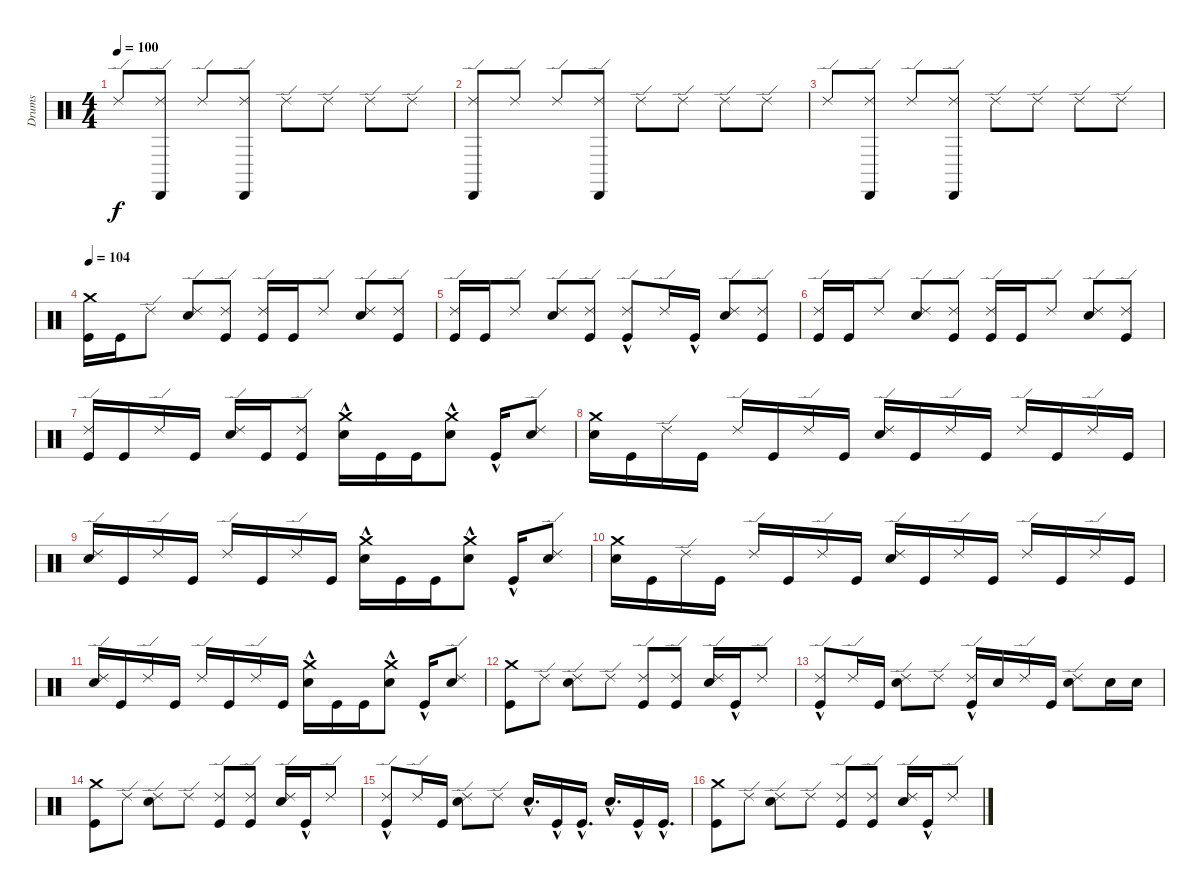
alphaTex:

\track ("Drums" "Drums") {instrument percussion}
\staff {score}
\articulation defaults
\ts (4 4)
\tempo 100
\clef neutral
\ks c "Ride (edge) 2".8{dy f}
("Cabasa (hit)" "Ride (edge) 2").8 "Ride (edge) 2".8 ("Cabasa (hit)" "Ride (edge) 2").8 "Ride (edge) 2".8 "Ride (edge) 2".8 "Ride (edge) 2".8 "Ride (edge) 2".8 |
("Cabasa (hit)" "Ride (edge) 2").8 "Ride (edge) 2".8 "Ride (edge) 2".8 ("Cabasa (hit)" "Ride (edge) 2").8 "Ride (edge) 2".8 "Ride (edge) 2".8 "Ride (edge) 2".8 "Ride (edge) 2".8 |
"Ride (edge) 2".8 ("Cabasa (hit)" "Ride (edge) 2").8 "Ride (edge) 2".8 ("Cabasa (hit)" "Ride (edge) 2").8 "Ride (edge) 2".8 "Ride (edge) 2".8 "Ride (edge) 2".8 "Ride (edge) 2".8 |
\tempo 104
("Kick (hit)" "Crash medium (hit)").16 "Kick (hit)".16 "Ride (edge) 2".8 ("Electric Snare (hit)" "Ride (edge) 2").8 ("Kick (hit)" "Ride (edge) 2").8 ("Ride (edge) 2" "Kick (hit)").16 "Kick (hit)".16 "Ride (edge) 2".8 ("Electric Snare (hit)" "Ride (edge) 2").8 ("Kick (hit)" "Ride (edge) 2").8 |
("Kick (hit)" "Ride (edge) 2").16 "Kick (hit)".16 "Ride (edge) 2".8 ("Electric Snare (hit)" "Ride (edge) 2").8 ("Kick (hit)" "Ride (edge) 2").8 ("Kick (hit)"{hac} "Ride (edge) 2").8 "Ride (edge) 2".16 "Kick (hit)"{hac}.16 ("Electric Snare (hit)" "Ride (edge) 2").8 ("Kick (hit)" "Ride (edge) 2").8 |
("Kick (hit)" "Ride (edge) 2").16 "Kick (hit)".16 "Ride (edge) 2".8 ("Electric Snare (hit)" "Ride (edge) 2").8 ("Kick (hit)" "Ride (edge) 2").8 ("Kick (hit)" "Ride (edge) 2").16 "Kick (hit)".16 "Ride (edge) 2".8 ("Electric Snare (hit)" "Ride (edge) 2").8 ("Kick (hit)" "Ride (edge) 2").8 |
("Kick (hit)" "Ride (edge) 2").16 "Kick (hit)".16 "Ride (edge) 2".16 "Kick (hit)".16 ("Electric Snare (hit)" "Ride (edge) 2").16 "Kick (hit)".16 ("Kick (hit)" "Ride (edge) 2").8 ("Electric Snare (hit)"{hac} "Crash medium (hit)"{hac}).16 "Kick (hit)".16 "Kick (hit)".16 ("Electric Snare (hit)"{hac} "Crash medium (hit)"{hac}).8 "Kick (hit)"{hac}.16 ("Electric Snare (hit)" "Ride (edge) 2").8 |
("Electric Snare (hit)" "Crash medium (hit)").16 "Kick (hit)".16 "Ride (edge) 2".16 "Kick (hit)".16 "Ride (edge) 2".16 "Kick (hit)".16 "Ride (edge) 2".16 "Kick (hit)".16 ("Electric Snare (hit)" "Ride (edge) 2").16 "Kick (hit)".16 "Ride (edge) 2".16 "Kick (hit)".16 "Ride (edge) 2".16 "Kick (hit)".16 "Ride (edge) 2".16 "Kick (hit)".16 |
("Electric Snare (hit)" "Ride (edge) 2").16 "Kick (hit)".16 "Ride (edge) 2".16 "Kick (hit)".16 "Ride (edge) 2".16 "Kick (hit)".16 "Ride (edge) 2".16 "Kick (hit)".16 ("Electric Snare (hit)"{hac} "Crash medium (hit)"{hac}).16 "Kick (hit)".16 "Kick (hit)".16 ("Electric Snare (hit)"{hac} "Crash medium (hit)"{hac}).8 "Kick (hit)"{hac}.16 ("Electric Snare (hit)" "Ride (edge) 2").8 |
("Electric Snare (hit)" "Crash medium (hit)").16 "Kick (hit)".16 "Ride (edge) 2".16 "Kick (hit)".16 "Ride (edge) 2".16 "Kick (hit)".16 "Ride (edge) 2".16 "Kick (hit)".16 ("Electric Snare (hit)" "Ride (edge) 2").16 "Kick (hit)".16 "Ride (edge) 2".16 "Kick (hit)".16 "Ride (edge) 2".16 "Kick (hit)".16 "Ride (edge) 2".16 "Kick (hit)".16 |
("Electric Snare (hit)" "Ride (edge) 2").16 "Kick (hit)".16 "Ride (edge) 2".16 "Kick (hit)".16 "Ride (edge) 2".16 "Kick (hit)".16 "Ride (edge) 2".16 "Kick (hit)".16 ("Electric Snare (hit)"{hac} "Crash medium (hit)"{hac}).16 "Kick (hit)".16 "Kick (hit)".16 ("Electric Snare (hit)"{hac} "Crash medium (hit)"{hac}).8 "Kick (hit)"{hac}.16 ("Electric Snare (hit)" "Ride (edge) 2").8 |
("Kick (hit)" "Crash medium (hit)").8 "Ride (edge) 2".8 ("Electric Snare (hit)" "Ride (edge) 2").8 "Ride (edge) 2".8 ("Kick (hit)" "Ride (edge) 2").8 ("Kick (hit)" "Ride (edge) 2").8 ("Electric Snare (hit)" "Ride (edge) 2").16 "Kick (hit)"{hac}.16 "Ride (edge) 2".8 |
("Kick (hit)"{hac} "Ride (edge) 2").8 "Ride (edge) 2".16 "Kick (hit)".16 ("Electric Snare (hit)" "Ride (edge) 2").8 "Ride (edge) 2".8 ("Kick (hit)"{hac} "Ride (edge) 2").16 "Electric Snare (hit)".16 "Ride (edge) 2".16 "Kick (hit)".16 ("Electric Snare (hit)" "Ride (edge) 2").8 "Electric Snare (hit)".16 "Electric Snare (hit)".16 |
("Kick (hit)" "Crash medium (hit)").8 "Ride (edge) 2".8 ("Electric Snare (hit)" "Ride (edge) 2").8 "Ride (edge) 2".8 ("Kick (hit)" "Ride (edge) 2").8 ("Kick (hit)" "Ride (edge) 2").8 ("Electric Snare (hit)" "Ride (edge) 2").16 "Kick (hit)"{hac}.16 "Ride (edge) 2".8 |
("Kick (hit)"{hac} "Ride (edge) 2").8 "Ride (edge) 2".16 "Kick (hit)".16 ("Electric Snare (hit)" "Ride (edge) 2").8 "Ride (edge) 2".8 "Electric Snare (hit)"{hac}.16{d} "Kick (hit)"{hac}.16 "Kick (hit)"{hac}.16{d} "Electric Snare (hit)"{hac}.16{d} "Kick (hit)"{hac}.16 "Kick (hit)"{hac}.16{d} |
("Kick (hit)" "Crash medium (hit)").8 "Ride (edge) 2".8 ("Electric Snare (hit)" "Ride (edge) 2").8 "Ride (edge) 2".8 ("Kick (hit)" "Ride (edge) 2").8 ("Kick (hit)" "Ride (edge) 2").8 ("Electric Snare (hit)" "Ride (edge) 2").16 "Kick (hit)"{hac}.16 "Ride (edge) 2".8
